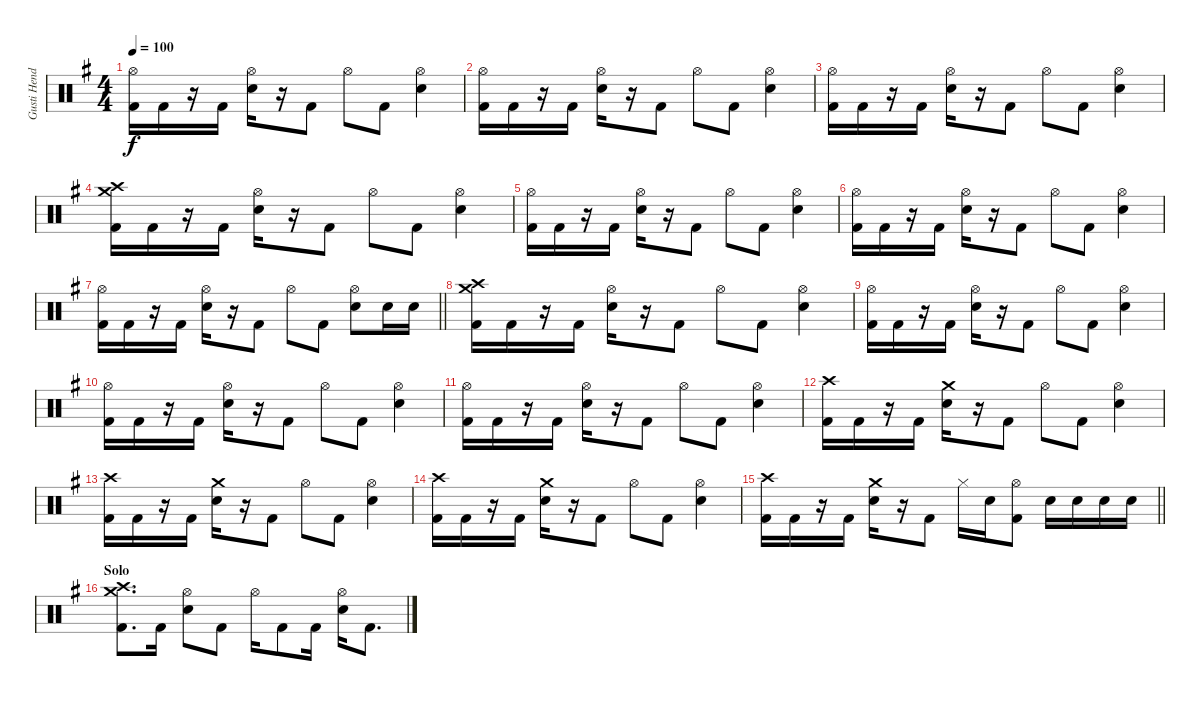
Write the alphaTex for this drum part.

\track ("Gusti Hendy" "Gusti Hend") {instrument percussion}
\staff {score}
\articulation defaults
\ts (4 4)
\tempo 100
\clef neutral
\ks g
("Hi-Hat (open)" "Kick (hit) 2").16{dy f} "Kick (hit) 2".16 r.16 "Kick (hit) 2".16 ("Hi-Hat (open)" "Electric Snare (hit)").16 r.16 "Kick (hit) 2".8 "Hi-Hat (open)".8 "Kick (hit) 2".8 ("Hi-Hat (open)" "Electric Snare (hit)").4 |
("Hi-Hat (open)" "Kick (hit) 2").16 "Kick (hit) 2".16 r.16 "Kick (hit) 2".16 ("Hi-Hat (open)" "Electric Snare (hit)").16 r.16 "Kick (hit) 2".8 "Hi-Hat (open)".8 "Kick (hit) 2".8 ("Hi-Hat (open)" "Electric Snare (hit)").4 |
("Hi-Hat (open)" "Kick (hit) 2").16 "Kick (hit) 2".16 r.16 "Kick (hit) 2".16 ("Hi-Hat (open)" "Electric Snare (hit)").16 r.16 "Kick (hit) 2".8 "Hi-Hat (open)".8 "Kick (hit) 2".8 ("Hi-Hat (open)" "Electric Snare (hit)").4 |
("Crash high (hit)" "Crash medium (hit)" "Kick (hit) 2").16 "Kick (hit) 2".16 r.16 "Kick (hit) 2".16 ("Hi-Hat (open)" "Electric Snare (hit)").16 r.16 "Kick (hit) 2".8 "Hi-Hat (open)".8 "Kick (hit) 2".8 ("Hi-Hat (open)" "Electric Snare (hit)").4 |
("Hi-Hat (open)" "Kick (hit) 2").16 "Kick (hit) 2".16 r.16 "Kick (hit) 2".16 ("Hi-Hat (open)" "Electric Snare (hit)").16 r.16 "Kick (hit) 2".8 "Hi-Hat (open)".8 "Kick (hit) 2".8 ("Hi-Hat (open)" "Electric Snare (hit)").4 |
("Hi-Hat (open)" "Kick (hit) 2").16 "Kick (hit) 2".16 r.16 "Kick (hit) 2".16 ("Hi-Hat (open)" "Electric Snare (hit)").16 r.16 "Kick (hit) 2".8 "Hi-Hat (open)".8 "Kick (hit) 2".8 ("Hi-Hat (open)" "Electric Snare (hit)").4 |
\barLineRight lightlight
("Hi-Hat (open)" "Kick (hit) 2").16 "Kick (hit) 2".16 r.16 "Kick (hit) 2".16 ("Hi-Hat (open)" "Electric Snare (hit)").16 r.16 "Kick (hit) 2".8 "Hi-Hat (open)".8 "Kick (hit) 2".8 ("Hi-Hat (open)" "Electric Snare (hit)").8 "Electric Snare (hit)".16 "Electric Snare (hit)".16 |
("Crash high (hit)" "Crash medium (hit)" "Kick (hit) 2").16 "Kick (hit) 2".16 r.16 "Kick (hit) 2".16 ("Hi-Hat (open)" "Electric Snare (hit)").16 r.16 "Kick (hit) 2".8 "Hi-Hat (open)".8 "Kick (hit) 2".8 ("Hi-Hat (open)" "Electric Snare (hit)").4 |
("Hi-Hat (open)" "Kick (hit) 2").16 "Kick (hit) 2".16 r.16 "Kick (hit) 2".16 ("Hi-Hat (open)" "Electric Snare (hit)").16 r.16 "Kick (hit) 2".8 "Hi-Hat (open)".8 "Kick (hit) 2".8 ("Hi-Hat (open)" "Electric Snare (hit)").4 |
("Hi-Hat (open)" "Kick (hit) 2").16 "Kick (hit) 2".16 r.16 "Kick (hit) 2".16 ("Hi-Hat (open)" "Electric Snare (hit)").16 r.16 "Kick (hit) 2".8 "Hi-Hat (open)".8 "Kick (hit) 2".8 ("Hi-Hat (open)" "Electric Snare (hit)").4 |
("Hi-Hat (open)" "Kick (hit) 2").16 "Kick (hit) 2".16 r.16 "Kick (hit) 2".16 ("Hi-Hat (open)" "Electric Snare (hit)").16 r.16 "Kick (hit) 2".8 "Hi-Hat (open)".8 "Kick (hit) 2".8 ("Hi-Hat (open)" "Electric Snare (hit)").4 |
("Crash high (hit)" "Kick (hit) 2").16 "Kick (hit) 2".16 r.16 "Kick (hit) 2".16 ("Crash medium (hit)" "Electric Snare (hit)").16 r.16 "Kick (hit) 2".8 "Hi-Hat (open)".8 "Kick (hit) 2".8 ("Hi-Hat (open)" "Electric Snare (hit)").4 |
("Crash high (hit)" "Kick (hit) 2").16 "Kick (hit) 2".16 r.16 "Kick (hit) 2".16 ("Crash medium (hit)" "Electric Snare (hit)").16 r.16 "Kick (hit) 2".8 "Hi-Hat (open)".8 "Kick (hit) 2".8 ("Hi-Hat (open)" "Electric Snare (hit)").4 |
("Crash high (hit)" "Kick (hit) 2").16 "Kick (hit) 2".16 r.16 "Kick (hit) 2".16 ("Crash medium (hit)" "Electric Snare (hit)").16 r.16 "Kick (hit) 2".8 "Hi-Hat (open)".8 "Kick (hit) 2".8 ("Hi-Hat (open)" "Electric Snare (hit)").4 |
\barLineRight lightlight
("Crash high (hit)" "Kick (hit) 2").16 "Kick (hit) 2".16 r.16 "Kick (hit) 2".16 ("Crash medium (hit)" "Electric Snare (hit)").16 r.16 "Kick (hit) 2".8 "Hi-Hat (closed)".16 "Electric Snare (hit)".16 ("Hi-Hat (open)" "Kick (hit) 2").8 "Electric Snare (hit)".16 "Electric Snare (hit)".16 "Electric Snare (hit)".16 "Electric Snare (hit)".16 |
\section ("" "Solo")
("Crash high (hit)" "Crash medium (hit)" "Kick (hit) 2").8{d} "Kick (hit) 2".16 ("Hi-Hat (open)" "Electric Snare (hit)").8 "Kick (hit) 2".8 "Hi-Hat (open)".16 "Kick (hit) 2".8 "Kick (hit) 2".16 ("Hi-Hat (open)" "Electric Snare (hit)").16 "Kick (hit) 2".8{d}
